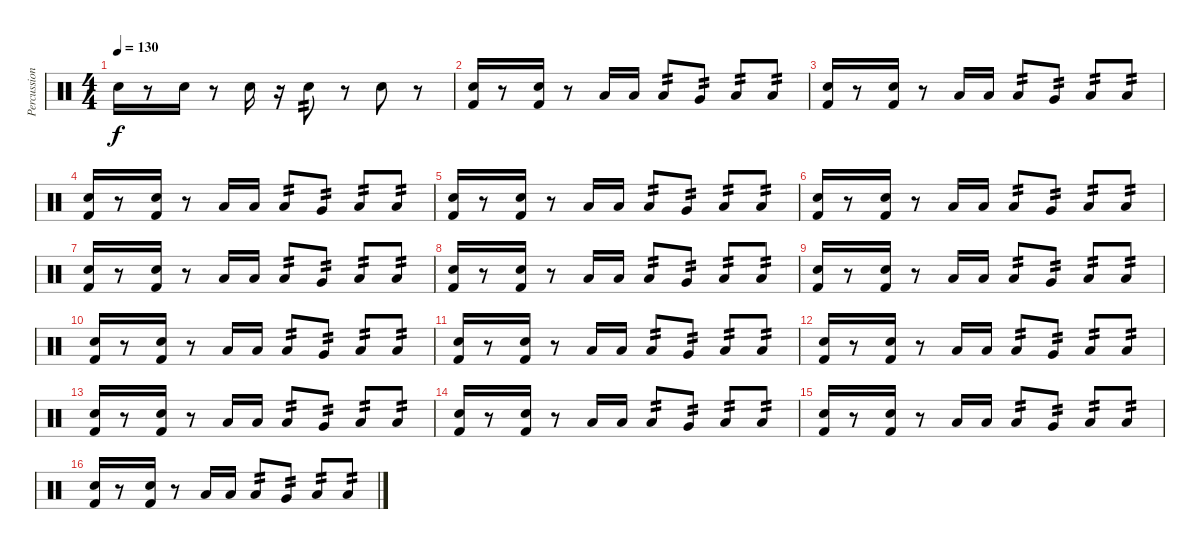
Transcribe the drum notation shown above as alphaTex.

\track ("Percussion" "Percussion") {instrument percussion}
\staff {score}
\articulation defaults
\ts (4 4)
\tempo 130
\clef neutral
\ks c "Snare (hit) 2".16{dy f}
r.8 "Snare (hit) 2".16 r.8 "Snare (hit) 2".16 r.16 "Snare (hit) 2".8{tp 2} r.8 "Snare (hit) 2".8 r.8 |
("Snare (hit) 2" "Kick (hit) 2").16 r.8 ("Snare (hit) 2" "Kick (hit) 2").16 r.8 "Low Tom (hit)".16 "Low Tom (hit)".16 "Low Tom (hit)".8{tp 2} "Very Low Tom (hit)".8{tp 2} "Low Floor Tom (hit)".8{tp 2} "Low Floor Tom (hit)".8{tp 2} |
("Snare (hit) 2" "Kick (hit) 2").16 r.8 ("Snare (hit) 2" "Kick (hit) 2").16 r.8 "Low Tom (hit)".16 "Low Tom (hit)".16 "Low Tom (hit)".8{tp 2} "Very Low Tom (hit)".8{tp 2} "Low Floor Tom (hit)".8{tp 2} "Low Floor Tom (hit)".8{tp 2} |
("Snare (hit) 2" "Kick (hit) 2").16 r.8 ("Snare (hit) 2" "Kick (hit) 2").16 r.8 "Low Tom (hit)".16 "Low Tom (hit)".16 "Low Tom (hit)".8{tp 2} "Very Low Tom (hit)".8{tp 2} "Low Floor Tom (hit)".8{tp 2} "Low Floor Tom (hit)".8{tp 2} |
("Snare (hit) 2" "Kick (hit) 2").16 r.8 ("Snare (hit) 2" "Kick (hit) 2").16 r.8 "Low Tom (hit)".16 "Low Tom (hit)".16 "Low Tom (hit)".8{tp 2} "Very Low Tom (hit)".8{tp 2} "Low Floor Tom (hit)".8{tp 2} "Low Floor Tom (hit)".8{tp 2} |
("Snare (hit) 2" "Kick (hit) 2").16 r.8 ("Snare (hit) 2" "Kick (hit) 2").16 r.8 "Low Tom (hit)".16 "Low Tom (hit)".16 "Low Tom (hit)".8{tp 2} "Very Low Tom (hit)".8{tp 2} "Low Floor Tom (hit)".8{tp 2} "Low Floor Tom (hit)".8{tp 2} |
("Snare (hit) 2" "Kick (hit) 2").16 r.8 ("Snare (hit) 2" "Kick (hit) 2").16 r.8 "Low Tom (hit)".16 "Low Tom (hit)".16 "Low Tom (hit)".8{tp 2} "Very Low Tom (hit)".8{tp 2} "Low Floor Tom (hit)".8{tp 2} "Low Floor Tom (hit)".8{tp 2} |
("Snare (hit) 2" "Kick (hit) 2").16 r.8 ("Snare (hit) 2" "Kick (hit) 2").16 r.8 "Low Tom (hit)".16 "Low Tom (hit)".16 "Low Tom (hit)".8{tp 2} "Very Low Tom (hit)".8{tp 2} "Low Floor Tom (hit)".8{tp 2} "Low Floor Tom (hit)".8{tp 2} |
("Snare (hit) 2" "Kick (hit) 2").16 r.8 ("Snare (hit) 2" "Kick (hit) 2").16 r.8 "Low Tom (hit)".16 "Low Tom (hit)".16 "Low Tom (hit)".8{tp 2} "Very Low Tom (hit)".8{tp 2} "Low Floor Tom (hit)".8{tp 2} "Low Floor Tom (hit)".8{tp 2} |
("Snare (hit) 2" "Kick (hit) 2").16 r.8 ("Snare (hit) 2" "Kick (hit) 2").16 r.8 "Low Tom (hit)".16 "Low Tom (hit)".16 "Low Tom (hit)".8{tp 2} "Very Low Tom (hit)".8{tp 2} "Low Floor Tom (hit)".8{tp 2} "Low Floor Tom (hit)".8{tp 2} |
("Snare (hit) 2" "Kick (hit) 2").16 r.8 ("Snare (hit) 2" "Kick (hit) 2").16 r.8 "Low Tom (hit)".16 "Low Tom (hit)".16 "Low Tom (hit)".8{tp 2} "Very Low Tom (hit)".8{tp 2} "Low Floor Tom (hit)".8{tp 2} "Low Floor Tom (hit)".8{tp 2} |
("Snare (hit) 2" "Kick (hit) 2").16 r.8 ("Snare (hit) 2" "Kick (hit) 2").16 r.8 "Low Tom (hit)".16 "Low Tom (hit)".16 "Low Tom (hit)".8{tp 2} "Very Low Tom (hit)".8{tp 2} "Low Floor Tom (hit)".8{tp 2} "Low Floor Tom (hit)".8{tp 2} |
("Snare (hit) 2" "Kick (hit) 2").16 r.8 ("Snare (hit) 2" "Kick (hit) 2").16 r.8 "Low Tom (hit)".16 "Low Tom (hit)".16 "Low Tom (hit)".8{tp 2} "Very Low Tom (hit)".8{tp 2} "Low Floor Tom (hit)".8{tp 2} "Low Floor Tom (hit)".8{tp 2} |
("Snare (hit) 2" "Kick (hit) 2").16 r.8 ("Snare (hit) 2" "Kick (hit) 2").16 r.8 "Low Tom (hit)".16 "Low Tom (hit)".16 "Low Tom (hit)".8{tp 2} "Very Low Tom (hit)".8{tp 2} "Low Floor Tom (hit)".8{tp 2} "Low Floor Tom (hit)".8{tp 2} |
("Snare (hit) 2" "Kick (hit) 2").16 r.8 ("Snare (hit) 2" "Kick (hit) 2").16 r.8 "Low Tom (hit)".16 "Low Tom (hit)".16 "Low Tom (hit)".8{tp 2} "Very Low Tom (hit)".8{tp 2} "Low Floor Tom (hit)".8{tp 2} "Low Floor Tom (hit)".8{tp 2} |
("Snare (hit) 2" "Kick (hit) 2").16 r.8 ("Snare (hit) 2" "Kick (hit) 2").16 r.8 "Low Tom (hit)".16 "Low Tom (hit)".16 "Low Tom (hit)".8{tp 2} "Very Low Tom (hit)".8{tp 2} "Low Floor Tom (hit)".8{tp 2} "Low Floor Tom (hit)".8{tp 2}
